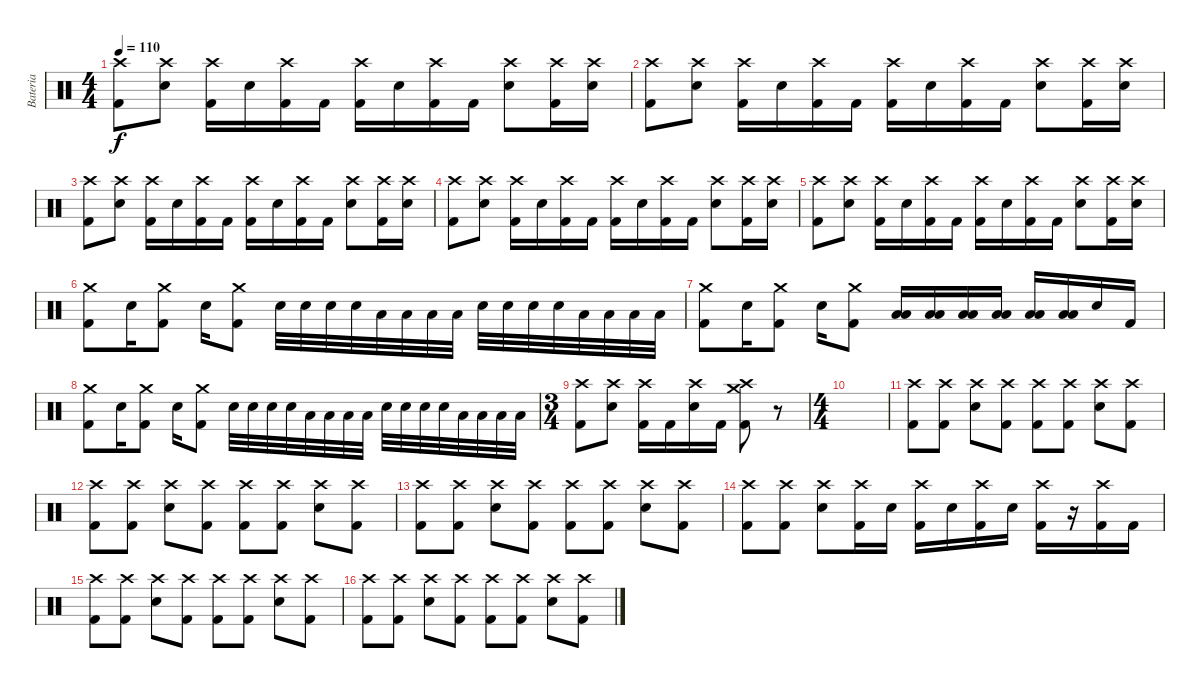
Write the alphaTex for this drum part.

\track ("Bateria" "Bateria") {instrument percussion}
\staff {score}
\articulation defaults
\ts (4 4)
\tempo 110
\clef neutral
\ks c
("Crash high (hit)" "Kick (hit) 2").8{dy f} ("Crash high (hit)" "Snare (hit) 2").8 ("Crash high (hit)" "Kick (hit) 2").16 "Snare (hit) 2".16 ("Crash high (hit)" "Kick (hit) 2").16 "Kick (hit) 2".16 ("Crash high (hit)" "Kick (hit) 2").16 "Snare (hit) 2".16 ("Crash high (hit)" "Kick (hit) 2").16 "Kick (hit) 2".16 ("Crash high (hit)" "Snare (hit) 2").8 ("Crash high (hit)" "Kick (hit) 2").16 ("Crash high (hit)" "Snare (hit) 2").16 |
("Crash high (hit)" "Kick (hit) 2").8 ("Crash high (hit)" "Snare (hit) 2").8 ("Crash high (hit)" "Kick (hit) 2").16 "Snare (hit) 2".16 ("Crash high (hit)" "Kick (hit) 2").16 "Kick (hit) 2".16 ("Crash high (hit)" "Kick (hit) 2").16 "Snare (hit) 2".16 ("Crash high (hit)" "Kick (hit) 2").16 "Kick (hit) 2".16 ("Crash high (hit)" "Snare (hit) 2").8 ("Crash high (hit)" "Kick (hit) 2").16 ("Crash high (hit)" "Snare (hit) 2").16 |
("Crash high (hit)" "Kick (hit) 2").8 ("Crash high (hit)" "Snare (hit) 2").8 ("Crash high (hit)" "Kick (hit) 2").16 "Snare (hit) 2".16 ("Crash high (hit)" "Kick (hit) 2").16 "Kick (hit) 2".16 ("Crash high (hit)" "Kick (hit) 2").16 "Snare (hit) 2".16 ("Crash high (hit)" "Kick (hit) 2").16 "Kick (hit) 2".16 ("Crash high (hit)" "Snare (hit) 2").8 ("Crash high (hit)" "Kick (hit) 2").16 ("Crash high (hit)" "Snare (hit) 2").16 |
("Crash high (hit)" "Kick (hit) 2").8 ("Crash high (hit)" "Snare (hit) 2").8 ("Crash high (hit)" "Kick (hit) 2").16 "Snare (hit) 2".16 ("Crash high (hit)" "Kick (hit) 2").16 "Kick (hit) 2".16 ("Crash high (hit)" "Kick (hit) 2").16 "Snare (hit) 2".16 ("Crash high (hit)" "Kick (hit) 2").16 "Kick (hit) 2".16 ("Crash high (hit)" "Snare (hit) 2").8 ("Crash high (hit)" "Kick (hit) 2").16 ("Crash high (hit)" "Snare (hit) 2").16 |
("Crash high (hit)" "Kick (hit) 2").8 ("Crash high (hit)" "Snare (hit) 2").8 ("Crash high (hit)" "Kick (hit) 2").16 "Snare (hit) 2".16 ("Crash high (hit)" "Kick (hit) 2").16 "Kick (hit) 2".16 ("Crash high (hit)" "Kick (hit) 2").16 "Snare (hit) 2".16 ("Crash high (hit)" "Kick (hit) 2").16 "Kick (hit) 2".16 ("Crash high (hit)" "Snare (hit) 2").8 ("Crash high (hit)" "Kick (hit) 2").16 ("Crash high (hit)" "Snare (hit) 2").16 |
("Crash medium (hit)" "Kick (hit) 2").8 "Snare (hit) 2".16 ("Crash medium (hit)" "Kick (hit) 2").8 "Snare (hit) 2".16 ("Crash medium (hit)" "Kick (hit) 2").8 "Snare (hit) 2".32 "Snare (hit) 2".32 "Snare (hit) 2".32 "Snare (hit) 2".32 "Low Tom (hit)".32 "Low Tom (hit)".32 "Low Tom (hit)".32 "Low Tom (hit)".32 "Snare (hit) 2".32 "Snare (hit) 2".32 "Snare (hit) 2".32 "Snare (hit) 2".32 "Low Tom (hit)".32 "Low Tom (hit)".32 "Low Tom (hit)".32 "Low Tom (hit)".32 |
("Crash medium (hit)" "Kick (hit) 2").8 "Snare (hit) 2".16 ("Crash medium (hit)" "Kick (hit) 2").8 "Snare (hit) 2".16 ("Crash medium (hit)" "Kick (hit) 2").8 ("Low Tom (hit)" "Low Floor Tom (hit)").16 ("Low Tom (hit)" "Low Floor Tom (hit)").16 ("Low Tom (hit)" "Low Floor Tom (hit)").16 ("Low Tom (hit)" "Low Floor Tom (hit)").16 ("Low Tom (hit)" "Low Floor Tom (hit)").16 ("Low Tom (hit)" "Low Floor Tom (hit)").16 "Snare (hit) 2".16 "Kick (hit) 2".16 |
("Crash medium (hit)" "Kick (hit) 2").8 "Snare (hit) 2".16 ("Crash medium (hit)" "Kick (hit) 2").8 "Snare (hit) 2".16 ("Crash medium (hit)" "Kick (hit) 2").8 "Snare (hit) 2".32 "Snare (hit) 2".32 "Snare (hit) 2".32 "Snare (hit) 2".32 "Low Tom (hit)".32 "Low Tom (hit)".32 "Low Tom (hit)".32 "Low Tom (hit)".32 "Snare (hit) 2".32 "Snare (hit) 2".32 "Snare (hit) 2".32 "Snare (hit) 2".32 "Low Tom (hit)".32 "Low Tom (hit)".32 "Low Tom (hit)".32 "Low Tom (hit)".32 |
\ts (3 4)
("Crash high (hit)" "Kick (hit) 2").8 ("Crash high (hit)" "Snare (hit) 2").8 ("Crash high (hit)" "Kick (hit) 2").16 "Kick (hit) 2".16 ("Crash high (hit)" "Snare (hit) 2").16 "Kick (hit) 2".16 ("Crash medium (hit)" "Crash high (hit)" "Kick (hit) 2").8 r.8 |
\ts (4 4)
|
("Crash high (hit)" "Kick (hit) 2").8 ("Crash high (hit)" "Kick (hit) 2").8 ("Crash high (hit)" "Snare (hit) 2").8 ("Crash high (hit)" "Kick (hit) 2").8 ("Crash high (hit)" "Kick (hit) 2").8 ("Crash high (hit)" "Kick (hit) 2").8 ("Crash high (hit)" "Snare (hit) 2").8 ("Crash high (hit)" "Kick (hit) 2").8 |
("Crash high (hit)" "Kick (hit) 2").8 ("Crash high (hit)" "Kick (hit) 2").8 ("Crash high (hit)" "Snare (hit) 2").8 ("Crash high (hit)" "Kick (hit) 2").8 ("Crash high (hit)" "Kick (hit) 2").8 ("Crash high (hit)" "Kick (hit) 2").8 ("Crash high (hit)" "Snare (hit) 2").8 ("Crash high (hit)" "Kick (hit) 2").8 |
("Crash high (hit)" "Kick (hit) 2").8 ("Crash high (hit)" "Kick (hit) 2").8 ("Crash high (hit)" "Snare (hit) 2").8 ("Crash high (hit)" "Kick (hit) 2").8 ("Crash high (hit)" "Kick (hit) 2").8 ("Crash high (hit)" "Kick (hit) 2").8 ("Crash high (hit)" "Snare (hit) 2").8 ("Crash high (hit)" "Kick (hit) 2").8 |
("Crash high (hit)" "Kick (hit) 2").8 ("Crash high (hit)" "Kick (hit) 2").8 ("Crash high (hit)" "Snare (hit) 2").8 ("Crash high (hit)" "Kick (hit) 2").16 "Snare (hit) 2".16 ("Crash high (hit)" "Kick (hit) 2").16 "Snare (hit) 2".16 ("Crash high (hit)" "Kick (hit) 2").16 "Snare (hit) 2".16 ("Crash high (hit)" "Kick (hit) 2").16 r.16 ("Crash high (hit)" "Kick (hit) 2").16 "Kick (hit) 2".16 |
("Crash high (hit)" "Kick (hit) 2").8 ("Crash high (hit)" "Kick (hit) 2").8 ("Crash high (hit)" "Snare (hit) 2").8 ("Crash high (hit)" "Kick (hit) 2").8 ("Crash high (hit)" "Kick (hit) 2").8 ("Crash high (hit)" "Kick (hit) 2").8 ("Crash high (hit)" "Snare (hit) 2").8 ("Crash high (hit)" "Kick (hit) 2").8 |
("Crash high (hit)" "Kick (hit) 2").8 ("Crash high (hit)" "Kick (hit) 2").8 ("Crash high (hit)" "Snare (hit) 2").8 ("Crash high (hit)" "Kick (hit) 2").8 ("Crash high (hit)" "Kick (hit) 2").8 ("Crash high (hit)" "Kick (hit) 2").8 ("Crash high (hit)" "Snare (hit) 2").8 ("Crash high (hit)" "Kick (hit) 2").8
